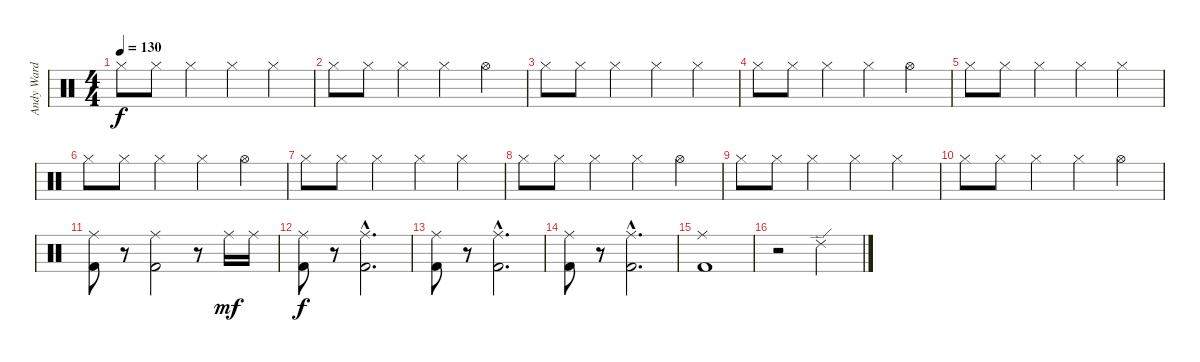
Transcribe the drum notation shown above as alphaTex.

\track ("Andy Ward" "Andy Ward") {instrument percussion}
\staff {score}
\articulation defaults
\ts (4 4)
\tempo 130
\clef neutral
\ks c "Hi-Hat (closed)".8{dy f} "Hi-Hat (closed)".8 "Hi-Hat (closed)".4 "Hi-Hat (closed)".4 "Hi-Hat (closed)".4
|
"Hi-Hat (closed)".8 "Hi-Hat (closed)".8 "Hi-Hat (closed)".4 "Hi-Hat (closed)".4 "Hi-Hat (open)".4 |
"Hi-Hat (closed)".8 "Hi-Hat (closed)".8 "Hi-Hat (closed)".4 "Hi-Hat (closed)".4 "Hi-Hat (closed)".4 |
"Hi-Hat (closed)".8 "Hi-Hat (closed)".8 "Hi-Hat (closed)".4 "Hi-Hat (closed)".4 "Hi-Hat (open)".4 |
"Hi-Hat (closed)".8 "Hi-Hat (closed)".8 "Hi-Hat (closed)".4 "Hi-Hat (closed)".4 "Hi-Hat (closed)".4 |
"Hi-Hat (closed)".8 "Hi-Hat (closed)".8 "Hi-Hat (closed)".4 "Hi-Hat (closed)".4 "Hi-Hat (open)".4 |
"Hi-Hat (closed)".8 "Hi-Hat (closed)".8 "Hi-Hat (closed)".4 "Hi-Hat (closed)".4 "Hi-Hat (closed)".4 |
"Hi-Hat (closed)".8 "Hi-Hat (closed)".8 "Hi-Hat (closed)".4 "Hi-Hat (closed)".4 "Hi-Hat (open)".4 |
"Hi-Hat (closed)".8 "Hi-Hat (closed)".8 "Hi-Hat (closed)".4 "Hi-Hat (closed)".4 "Hi-Hat (closed)".4 |
"Hi-Hat (closed)".8 "Hi-Hat (closed)".8 "Hi-Hat (closed)".4 "Hi-Hat (closed)".4 "Hi-Hat (open)".4 |
("Ride (middle)" "Kick (hit) 2").8 r.8 ("Ride (middle)" "Kick (hit) 2").2 r.8 "Ride (middle)".16{dy mf} "Ride (middle)".16 |
("Ride (middle)" "Kick (hit) 2").8{dy f} r.8 ("Ride (middle)"{hac} "Kick (hit) 2"{hac}).2{d} |
("Ride (middle)" "Kick (hit) 2").8 r.8 ("Ride (middle)"{hac} "Kick (hit) 2"{hac}).2{d} |
("Ride (middle)" "Kick (hit) 2").8 r.8 ("Ride (middle)"{hac} "Kick (hit) 2"{hac}).2{d} |
("Ride (middle)" "Kick (hit) 2").1 |
r.2 "Ride (edge) 2".2
